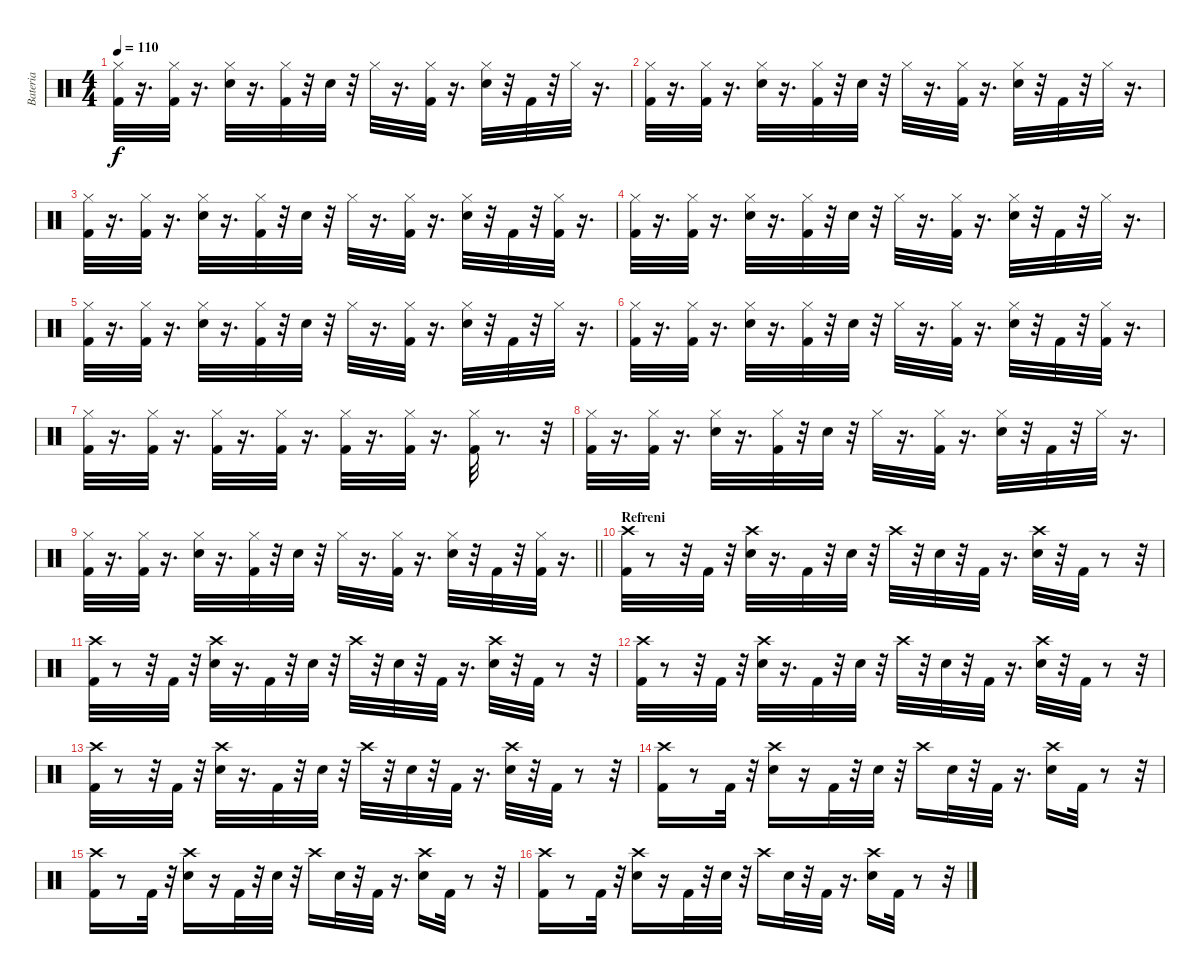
\track ("Bateria" "Bateria") {instrument percussion}
\staff {score}
\articulation defaults
\ts (4 4)
\tempo 110
\clef neutral
\ks c
("Kick (hit) 2" "Hi-Hat (closed)").32{dy f} r.16{d} ("Kick (hit) 2" "Hi-Hat (closed)").32 r.16{d} ("Snare (hit) 2" "Hi-Hat (closed)").32 r.16{d} ("Kick (hit) 2" "Hi-Hat (closed)").32 r.32 "Snare (hit) 2".32 r.32 "Hi-Hat (closed)".32 r.16{d} ("Kick (hit) 2" "Hi-Hat (closed)").32 r.16{d} ("Snare (hit) 2" "Hi-Hat (closed)").32 r.32 "Kick (hit) 2".32 r.32 "Hi-Hat (closed)".32 r.16{d} |
("Kick (hit) 2" "Hi-Hat (closed)").32 r.16{d} ("Kick (hit) 2" "Hi-Hat (closed)").32 r.16{d} ("Snare (hit) 2" "Hi-Hat (closed)").32 r.16{d} ("Kick (hit) 2" "Hi-Hat (closed)").32 r.32 "Snare (hit) 2".32 r.32 "Hi-Hat (closed)".32 r.16{d} ("Kick (hit) 2" "Hi-Hat (closed)").32 r.16{d} ("Snare (hit) 2" "Hi-Hat (closed)").32 r.32 "Kick (hit) 2".32 r.32 "Hi-Hat (closed)".32 r.16{d} |
("Kick (hit) 2" "Hi-Hat (closed)").32 r.16{d} ("Kick (hit) 2" "Hi-Hat (closed)").32 r.16{d} ("Snare (hit) 2" "Hi-Hat (closed)").32 r.16{d} ("Kick (hit) 2" "Hi-Hat (closed)").32 r.32 "Snare (hit) 2".32 r.32 "Hi-Hat (closed)".32 r.16{d} ("Kick (hit) 2" "Hi-Hat (closed)").32 r.16{d} ("Snare (hit) 2" "Hi-Hat (closed)").32 r.32 "Kick (hit) 2".32 r.32 ("Kick (hit) 2" "Hi-Hat (closed)").32 r.16{d} |
("Kick (hit) 2" "Hi-Hat (closed)").32 r.16{d} ("Kick (hit) 2" "Hi-Hat (closed)").32 r.16{d} ("Snare (hit) 2" "Hi-Hat (closed)").32 r.16{d} ("Kick (hit) 2" "Hi-Hat (closed)").32 r.32 "Snare (hit) 2".32 r.32 "Hi-Hat (closed)".32 r.16{d} ("Kick (hit) 2" "Hi-Hat (closed)").32 r.16{d} ("Snare (hit) 2" "Hi-Hat (closed)").32 r.32 "Kick (hit) 2".32 r.32 "Hi-Hat (closed)".32 r.16{d} |
("Kick (hit) 2" "Hi-Hat (closed)").32 r.16{d} ("Kick (hit) 2" "Hi-Hat (closed)").32 r.16{d} ("Snare (hit) 2" "Hi-Hat (closed)").32 r.16{d} ("Kick (hit) 2" "Hi-Hat (closed)").32 r.32 "Snare (hit) 2".32 r.32 "Hi-Hat (closed)".32 r.16{d} ("Kick (hit) 2" "Hi-Hat (closed)").32 r.16{d} ("Snare (hit) 2" "Hi-Hat (closed)").32 r.32 "Kick (hit) 2".32 r.32 "Hi-Hat (closed)".32 r.16{d} |
("Kick (hit) 2" "Hi-Hat (closed)").32 r.16{d} ("Kick (hit) 2" "Hi-Hat (closed)").32 r.16{d} ("Snare (hit) 2" "Hi-Hat (closed)").32 r.16{d} ("Kick (hit) 2" "Hi-Hat (closed)").32 r.32 "Snare (hit) 2".32 r.32 "Hi-Hat (closed)".32 r.16{d} ("Kick (hit) 2" "Hi-Hat (closed)").32 r.16{d} ("Snare (hit) 2" "Hi-Hat (closed)").32 r.32 "Kick (hit) 2".32 r.32 ("Kick (hit) 2" "Hi-Hat (closed)").32 r.16{d} |
("Kick (hit) 2" "Hi-Hat (closed)").32 r.16{d} ("Kick (hit) 2" "Hi-Hat (closed)").32 r.16{d} ("Hi-Hat (closed)" "Kick (hit) 2").32 r.16{d} ("Hi-Hat (closed)" "Kick (hit) 2").32 r.16{d} ("Hi-Hat (closed)" "Kick (hit) 2").32 r.16{d} ("Hi-Hat (closed)" "Kick (hit) 2").32 r.16{d} ("Hi-Hat (closed)" "Kick (hit) 2").32 r.8{d} r.32 |
("Hi-Hat (closed)" "Kick (hit) 2").32 r.16{d} ("Hi-Hat (closed)" "Kick (hit) 2").32 r.16{d} ("Hi-Hat (closed)" "Snare (hit) 2").32 r.16{d} ("Hi-Hat (closed)" "Kick (hit) 2").32 r.32 "Snare (hit) 2".32 r.32 "Hi-Hat (closed)".32 r.16{d} ("Hi-Hat (closed)" "Kick (hit) 2").32 r.16{d} ("Hi-Hat (closed)" "Snare (hit) 2").32 r.32 "Kick (hit) 2".32 r.32 "Hi-Hat (closed)".32 r.16{d} |
\barLineRight lightlight
("Kick (hit) 2" "Hi-Hat (closed)").32 r.16{d} ("Kick (hit) 2" "Hi-Hat (closed)").32 r.16{d} ("Snare (hit) 2" "Hi-Hat (closed)").32 r.16{d} ("Kick (hit) 2" "Hi-Hat (closed)").32 r.32 "Snare (hit) 2".32 r.32 "Hi-Hat (closed)".32 r.16{d} ("Kick (hit) 2" "Hi-Hat (closed)").32 r.16{d} ("Snare (hit) 2" "Hi-Hat (closed)").32 r.32 "Kick (hit) 2".32 r.32 ("Kick (hit) 2" "Hi-Hat (closed)").32 r.16{d} |
\section ("" "Refreni")
("Crash high (hit)" "Kick (hit) 2").32 r.8 r.32 "Kick (hit) 2".32 r.32 ("Crash high (hit)" "Snare (hit) 2").32 r.16{d} "Kick (hit) 2".32 r.32 "Snare (hit) 2".32 r.32 "Crash high (hit)".32 r.32 "Snare (hit) 2".32 r.32 "Kick (hit) 2".32 r.16{d} ("Crash high (hit)" "Snare (hit) 2").32 r.32 "Kick (hit) 2".32 r.8 r.32 |
("Crash high (hit)" "Kick (hit) 2").32 r.8 r.32 "Kick (hit) 2".32 r.32 ("Crash high (hit)" "Snare (hit) 2").32 r.16{d} "Kick (hit) 2".32 r.32 "Snare (hit) 2".32 r.32 "Crash high (hit)".32 r.32 "Snare (hit) 2".32 r.32 "Kick (hit) 2".32 r.16{d} ("Crash high (hit)" "Snare (hit) 2").32 r.32 "Kick (hit) 2".32 r.8 r.32 |
("Kick (hit) 2" "Crash high (hit)").32 r.8 r.32 "Kick (hit) 2".32 r.32 ("Snare (hit) 2" "Crash high (hit)").32 r.16{d} "Kick (hit) 2".32 r.32 "Snare (hit) 2".32 r.32 "Crash high (hit)".32 r.32 "Snare (hit) 2".32 r.32 "Kick (hit) 2".32 r.16{d} ("Snare (hit) 2" "Crash high (hit)").32 r.32 "Kick (hit) 2".32 r.8 r.32 |
("Kick (hit) 2" "Crash high (hit)").32 r.8 r.32 "Kick (hit) 2".32 r.32 ("Snare (hit) 2" "Crash high (hit)").32 r.16{d} "Kick (hit) 2".32 r.32 "Snare (hit) 2".32 r.32 "Crash high (hit)".32 r.32 "Snare (hit) 2".32 r.32 "Kick (hit) 2".32 r.16{d} ("Snare (hit) 2" "Crash high (hit)").32 r.32 "Kick (hit) 2".32 r.8 r.32 |
("Kick (hit) 2" "Crash high (hit)").16 r.8 "Kick (hit) 2".32 r.32 ("Snare (hit) 2" "Crash high (hit)").16 r.16 "Kick (hit) 2".32 r.32 "Snare (hit) 2".32 r.32 "Crash high (hit)".16 "Snare (hit) 2".32 r.32 "Kick (hit) 2".32 r.16{d} ("Snare (hit) 2" "Crash high (hit)").16 "Kick (hit) 2".32 r.8 r.32 |
("Kick (hit) 2" "Crash high (hit)").16 r.8 "Kick (hit) 2".32 r.32 ("Snare (hit) 2" "Crash high (hit)").16 r.16 "Kick (hit) 2".32 r.32 "Snare (hit) 2".32 r.32 "Crash high (hit)".16 "Snare (hit) 2".32 r.32 "Kick (hit) 2".32 r.16{d} ("Snare (hit) 2" "Crash high (hit)").16 "Kick (hit) 2".32 r.8 r.32 |
("Kick (hit) 2" "Crash high (hit)").16 r.8 "Kick (hit) 2".32 r.32 ("Snare (hit) 2" "Crash high (hit)").16 r.16 "Kick (hit) 2".32 r.32 "Snare (hit) 2".32 r.32 "Crash high (hit)".16 "Snare (hit) 2".32 r.32 "Kick (hit) 2".32 r.16{d} ("Snare (hit) 2" "Crash high (hit)").16 "Kick (hit) 2".32 r.8 r.32
